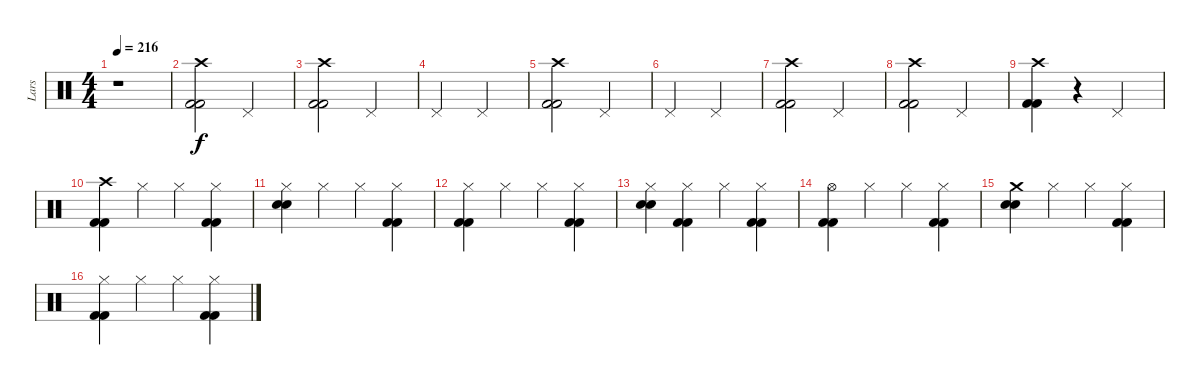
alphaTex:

\track ("Lars" "Lars") {instrument percussion}
\staff {score}
\articulation defaults
\ts (4 4)
\tempo 216
\clef neutral
\ks c
r.1{dy f} |
("Crash high (hit)" "Kick (hit) 2" "Kick (hit) 2").2 "Pedal Hi-Hat (hit)".2 |
("Crash high (hit)" "Kick (hit) 2" "Kick (hit) 2").2 "Pedal Hi-Hat (hit)".2 |
"Pedal Hi-Hat (hit)".2 "Pedal Hi-Hat (hit)".2 |
("Crash high (hit)" "Kick (hit) 2" "Kick (hit) 2").2 "Pedal Hi-Hat (hit)".2 |
"Pedal Hi-Hat (hit)".2 "Pedal Hi-Hat (hit)".2 |
("Crash high (hit)" "Kick (hit) 2" "Kick (hit) 2").2 "Pedal Hi-Hat (hit)".2 |
("Crash high (hit)" "Kick (hit) 2" "Kick (hit) 2").2 "Pedal Hi-Hat (hit)".2 |
("Crash high (hit)" "Kick (hit) 2" "Kick (hit) 2").4 r.4 "Pedal Hi-Hat (hit)".2 |
("Crash high (hit)" "Kick (hit) 2" "Kick (hit) 2").4 "Hi-Hat (closed)".4 "Hi-Hat (closed)".4 ("Hi-Hat (closed)" "Kick (hit) 2" "Kick (hit) 2").4 |
("Hi-Hat (closed)" "Electric Snare (hit)" "Electric Snare (hit)").4 "Hi-Hat (closed)".4 "Hi-Hat (closed)".4 ("Hi-Hat (closed)" "Kick (hit) 2" "Kick (hit) 2").4 |
("Hi-Hat (closed)" "Kick (hit) 2" "Kick (hit) 2").4 "Hi-Hat (closed)".4 "Hi-Hat (closed)".4 ("Hi-Hat (closed)" "Kick (hit) 2" "Kick (hit) 2").4 |
("Hi-Hat (closed)" "Electric Snare (hit)" "Electric Snare (hit)").4 ("Hi-Hat (closed)" "Kick (hit) 2" "Kick (hit) 2").4 "Hi-Hat (closed)".4 ("Hi-Hat (closed)" "Kick (hit) 2" "Kick (hit) 2").4 |
("Hi-Hat (open)" "Kick (hit) 2" "Kick (hit) 2").4 "Hi-Hat (closed)".4 "Hi-Hat (closed)".4 ("Hi-Hat (closed)" "Kick (hit) 2" "Kick (hit) 2").4 |
("Crash medium (hit)" "Electric Snare (hit)" "Electric Snare (hit)").4 "Hi-Hat (closed)".4 "Hi-Hat (closed)".4 ("Hi-Hat (closed)" "Kick (hit) 2" "Kick (hit) 2").4 |
("Hi-Hat (closed)" "Kick (hit) 2" "Kick (hit) 2").4 "Hi-Hat (closed)".4 "Hi-Hat (closed)".4 ("Hi-Hat (closed)" "Kick (hit) 2" "Kick (hit) 2").4
